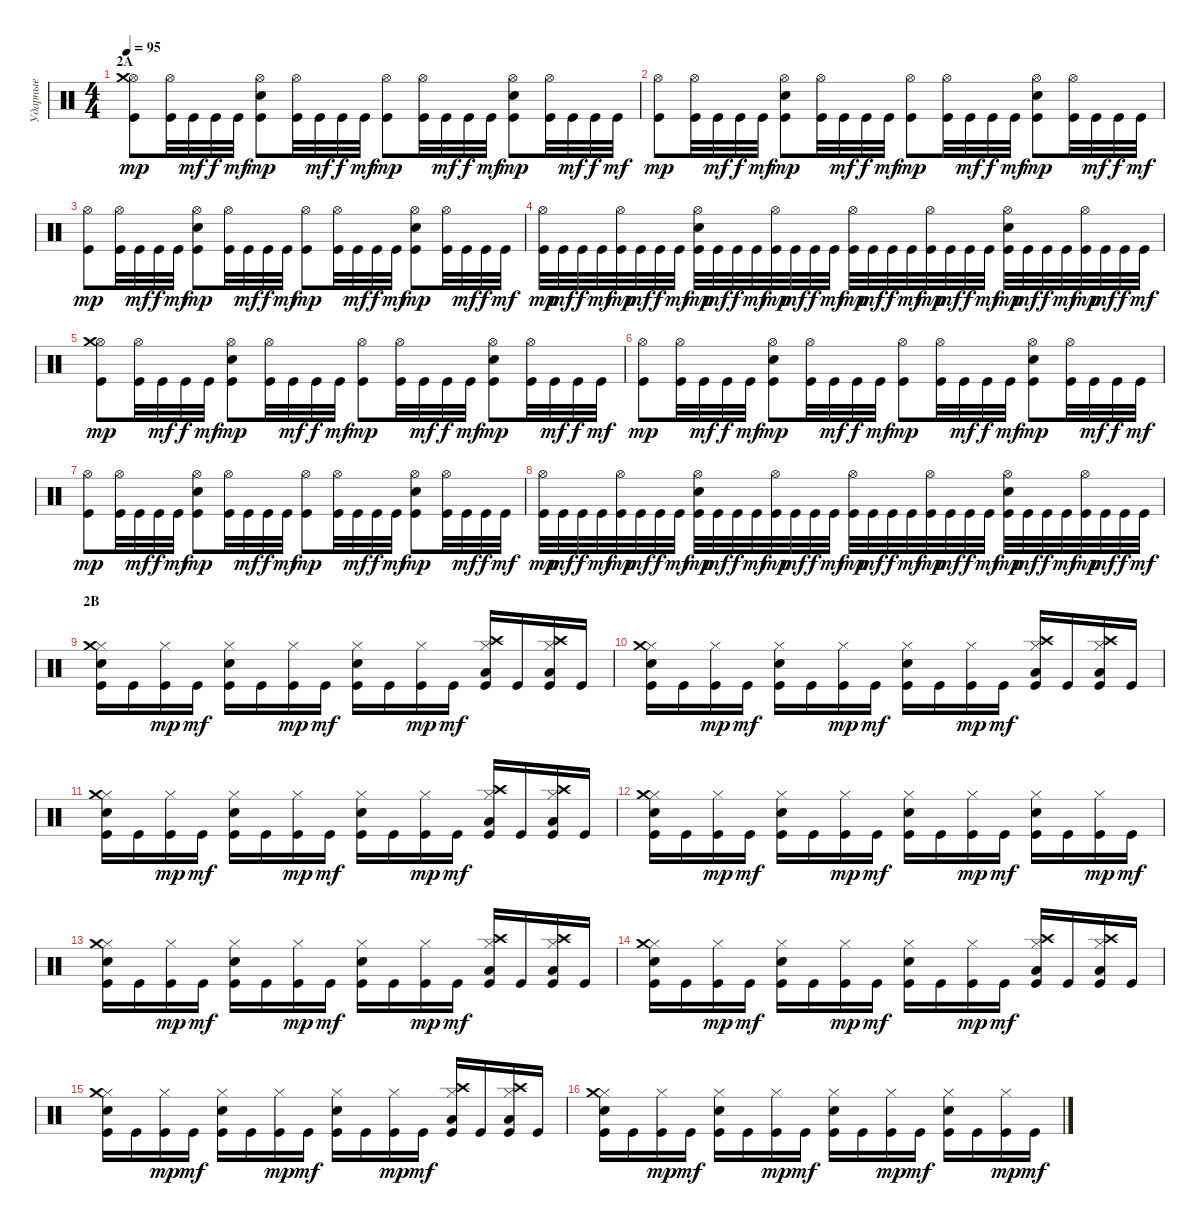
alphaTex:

\track ("Ударные" "Ударные") {instrument percussion}
\staff {score}
\articulation defaults
\ts (4 4)
\section ("" "2A")
\tempo 95
\clef neutral
\ks c
("Hi-Hat (open)" "Crash medium (hit)" "Kick (hit)").8{dy mp} ("Hi-Hat (open)" "Kick (hit)").32 "Kick (hit)".32{dy mf} "Kick (hit)".32{dy f} "Kick (hit)".32{dy mf} ("Hi-Hat (open)" "Snare (hit) 2" "Kick (hit)").8{dy mp} ("Hi-Hat (open)" "Kick (hit)").32 "Kick (hit)".32{dy mf} "Kick (hit)".32{dy f} "Kick (hit)".32{dy mf} ("Hi-Hat (open)" "Kick (hit)").8{dy mp} ("Hi-Hat (open)" "Kick (hit)").32 "Kick (hit)".32{dy mf} "Kick (hit)".32{dy f} "Kick (hit)".32{dy mf} ("Hi-Hat (open)" "Snare (hit) 2" "Kick (hit)").8{dy mp} ("Hi-Hat (open)" "Kick (hit)").32 "Kick (hit)".32{dy mf} "Kick (hit)".32{dy f} "Kick (hit)".32{dy mf} |
("Hi-Hat (open)" "Kick (hit)").8{dy mp} ("Hi-Hat (open)" "Kick (hit)").32 "Kick (hit)".32{dy mf} "Kick (hit)".32{dy f} "Kick (hit)".32{dy mf} ("Hi-Hat (open)" "Snare (hit) 2" "Kick (hit)").8{dy mp} ("Hi-Hat (open)" "Kick (hit)").32 "Kick (hit)".32{dy mf} "Kick (hit)".32{dy f} "Kick (hit)".32{dy mf} ("Hi-Hat (open)" "Kick (hit)").8{dy mp} ("Hi-Hat (open)" "Kick (hit)").32 "Kick (hit)".32{dy mf} "Kick (hit)".32{dy f} "Kick (hit)".32{dy mf} ("Hi-Hat (open)" "Snare (hit) 2" "Kick (hit)").8{dy mp} ("Hi-Hat (open)" "Kick (hit)").32 "Kick (hit)".32{dy mf} "Kick (hit)".32{dy f} "Kick (hit)".32{dy mf} |
("Hi-Hat (open)" "Kick (hit)").8{dy mp} ("Hi-Hat (open)" "Kick (hit)").32 "Kick (hit)".32{dy mf} "Kick (hit)".32{dy f} "Kick (hit)".32{dy mf} ("Hi-Hat (open)" "Snare (hit) 2" "Kick (hit)").8{dy mp} ("Hi-Hat (open)" "Kick (hit)").32 "Kick (hit)".32{dy mf} "Kick (hit)".32{dy f} "Kick (hit)".32{dy mf} ("Hi-Hat (open)" "Kick (hit)").8{dy mp} ("Hi-Hat (open)" "Kick (hit)").32 "Kick (hit)".32{dy mf} "Kick (hit)".32{dy f} "Kick (hit)".32{dy mf} ("Hi-Hat (open)" "Snare (hit) 2" "Kick (hit)").8{dy mp} ("Hi-Hat (open)" "Kick (hit)").32 "Kick (hit)".32{dy mf} "Kick (hit)".32{dy f} "Kick (hit)".32{dy mf} |
("Hi-Hat (open)" "Kick (hit)").32{dy mp} "Kick (hit)".32{dy mf} "Kick (hit)".32{dy f} "Kick (hit)".32{dy mf} ("Hi-Hat (open)" "Kick (hit)").32{dy mp} "Kick (hit)".32{dy mf} "Kick (hit)".32{dy f} "Kick (hit)".32{dy mf} ("Hi-Hat (open)" "Snare (hit) 2" "Kick (hit)").32{dy mp} "Kick (hit)".32{dy mf} "Kick (hit)".32{dy f} "Kick (hit)".32{dy mf} ("Hi-Hat (open)" "Kick (hit)").32{dy mp} "Kick (hit)".32{dy mf} "Kick (hit)".32{dy f} "Kick (hit)".32{dy mf} ("Hi-Hat (open)" "Kick (hit)").32{dy mp} "Kick (hit)".32{dy mf} "Kick (hit)".32{dy f} "Kick (hit)".32{dy mf} ("Hi-Hat (open)" "Kick (hit)").32{dy mp} "Kick (hit)".32{dy mf} "Kick (hit)".32{dy f} "Kick (hit)".32{dy mf} ("Hi-Hat (open)" "Snare (hit) 2" "Kick (hit)").32{dy mp} "Kick (hit)".32{dy mf} "Kick (hit)".32{dy f} "Kick (hit)".32{dy mf} ("Hi-Hat (open)" "Kick (hit)").32{dy mp} "Kick (hit)".32{dy mf} "Kick (hit)".32{dy f} "Kick (hit)".32{dy mf} |
("Hi-Hat (open)" "Crash medium (hit)" "Kick (hit)").8{dy mp} ("Hi-Hat (open)" "Kick (hit)").32 "Kick (hit)".32{dy mf} "Kick (hit)".32{dy f} "Kick (hit)".32{dy mf} ("Hi-Hat (open)" "Snare (hit) 2" "Kick (hit)").8{dy mp} ("Hi-Hat (open)" "Kick (hit)").32 "Kick (hit)".32{dy mf} "Kick (hit)".32{dy f} "Kick (hit)".32{dy mf} ("Hi-Hat (open)" "Kick (hit)").8{dy mp} ("Hi-Hat (open)" "Kick (hit)").32 "Kick (hit)".32{dy mf} "Kick (hit)".32{dy f} "Kick (hit)".32{dy mf} ("Hi-Hat (open)" "Snare (hit) 2" "Kick (hit)").8{dy mp} ("Hi-Hat (open)" "Kick (hit)").32 "Kick (hit)".32{dy mf} "Kick (hit)".32{dy f} "Kick (hit)".32{dy mf} |
("Hi-Hat (open)" "Kick (hit)").8{dy mp} ("Hi-Hat (open)" "Kick (hit)").32 "Kick (hit)".32{dy mf} "Kick (hit)".32{dy f} "Kick (hit)".32{dy mf} ("Hi-Hat (open)" "Snare (hit) 2" "Kick (hit)").8{dy mp} ("Hi-Hat (open)" "Kick (hit)").32 "Kick (hit)".32{dy mf} "Kick (hit)".32{dy f} "Kick (hit)".32{dy mf} ("Hi-Hat (open)" "Kick (hit)").8{dy mp} ("Hi-Hat (open)" "Kick (hit)").32 "Kick (hit)".32{dy mf} "Kick (hit)".32{dy f} "Kick (hit)".32{dy mf} ("Hi-Hat (open)" "Snare (hit) 2" "Kick (hit)").8{dy mp} ("Hi-Hat (open)" "Kick (hit)").32 "Kick (hit)".32{dy mf} "Kick (hit)".32{dy f} "Kick (hit)".32{dy mf} |
("Hi-Hat (open)" "Kick (hit)").8{dy mp} ("Hi-Hat (open)" "Kick (hit)").32 "Kick (hit)".32{dy mf} "Kick (hit)".32{dy f} "Kick (hit)".32{dy mf} ("Hi-Hat (open)" "Snare (hit) 2" "Kick (hit)").8{dy mp} ("Hi-Hat (open)" "Kick (hit)").32 "Kick (hit)".32{dy mf} "Kick (hit)".32{dy f} "Kick (hit)".32{dy mf} ("Hi-Hat (open)" "Kick (hit)").8{dy mp} ("Hi-Hat (open)" "Kick (hit)").32 "Kick (hit)".32{dy mf} "Kick (hit)".32{dy f} "Kick (hit)".32{dy mf} ("Hi-Hat (open)" "Snare (hit) 2" "Kick (hit)").8{dy mp} ("Hi-Hat (open)" "Kick (hit)").32 "Kick (hit)".32{dy mf} "Kick (hit)".32{dy f} "Kick (hit)".32{dy mf} |
("Hi-Hat (open)" "Kick (hit)").32{dy mp} "Kick (hit)".32{dy mf} "Kick (hit)".32{dy f} "Kick (hit)".32{dy mf} ("Hi-Hat (open)" "Kick (hit)").32{dy mp} "Kick (hit)".32{dy mf} "Kick (hit)".32{dy f} "Kick (hit)".32{dy mf} ("Hi-Hat (open)" "Snare (hit) 2" "Kick (hit)").32{dy mp} "Kick (hit)".32{dy mf} "Kick (hit)".32{dy f} "Kick (hit)".32{dy mf} ("Hi-Hat (open)" "Kick (hit)").32{dy mp} "Kick (hit)".32{dy mf} "Kick (hit)".32{dy f} "Kick (hit)".32{dy mf} ("Hi-Hat (open)" "Kick (hit)").32{dy mp} "Kick (hit)".32{dy mf} "Kick (hit)".32{dy f} "Kick (hit)".32{dy mf} ("Hi-Hat (open)" "Kick (hit)").32{dy mp} "Kick (hit)".32{dy mf} "Kick (hit)".32{dy f} "Kick (hit)".32{dy mf} ("Hi-Hat (open)" "Snare (hit) 2" "Kick (hit)").32{dy mp} "Kick (hit)".32{dy mf} "Kick (hit)".32{dy f} "Kick (hit)".32{dy mf} ("Hi-Hat (open)" "Kick (hit)").32{dy mp} "Kick (hit)".32{dy mf} "Kick (hit)".32{dy f} "Kick (hit)".32{dy mf} |
\section ("" "2B")
("Hi-Hat (closed)" "Crash medium (hit)" "Snare (hit) 2" "Kick (hit)").16 "Kick (hit)".16 ("Hi-Hat (closed)" "Kick (hit)").16{dy mp} "Kick (hit)".16{dy mf} ("Hi-Hat (closed)" "Snare (hit) 2" "Kick (hit)").16 "Kick (hit)".16 ("Hi-Hat (closed)" "Kick (hit)").16{dy mp} "Kick (hit)".16{dy mf} ("Hi-Hat (closed)" "Snare (hit) 2" "Kick (hit)").16 "Kick (hit)".16 ("Hi-Hat (closed)" "Kick (hit)").16{dy mp} "Kick (hit)".16{dy mf} ("Hi-Hat (closed)" "Crash high (hit)" "Low Floor Tom (hit)" "Kick (hit)").16 "Kick (hit)".16 ("Hi-Hat (closed)" "Crash high (hit)" "Low Floor Tom (hit)" "Kick (hit)").16 "Kick (hit)".16 |
("Hi-Hat (closed)" "Crash medium (hit)" "Snare (hit) 2" "Kick (hit)").16 "Kick (hit)".16 ("Hi-Hat (closed)" "Kick (hit)").16{dy mp} "Kick (hit)".16{dy mf} ("Hi-Hat (closed)" "Snare (hit) 2" "Kick (hit)").16 "Kick (hit)".16 ("Hi-Hat (closed)" "Kick (hit)").16{dy mp} "Kick (hit)".16{dy mf} ("Hi-Hat (closed)" "Snare (hit) 2" "Kick (hit)").16 "Kick (hit)".16 ("Hi-Hat (closed)" "Kick (hit)").16{dy mp} "Kick (hit)".16{dy mf} ("Hi-Hat (closed)" "Crash high (hit)" "Low Floor Tom (hit)" "Kick (hit)").16 "Kick (hit)".16 ("Hi-Hat (closed)" "Crash high (hit)" "Low Floor Tom (hit)" "Kick (hit)").16 "Kick (hit)".16 |
("Hi-Hat (closed)" "Crash medium (hit)" "Snare (hit) 2" "Kick (hit)").16 "Kick (hit)".16 ("Hi-Hat (closed)" "Kick (hit)").16{dy mp} "Kick (hit)".16{dy mf} ("Hi-Hat (closed)" "Snare (hit) 2" "Kick (hit)").16 "Kick (hit)".16 ("Hi-Hat (closed)" "Kick (hit)").16{dy mp} "Kick (hit)".16{dy mf} ("Hi-Hat (closed)" "Snare (hit) 2" "Kick (hit)").16 "Kick (hit)".16 ("Hi-Hat (closed)" "Kick (hit)").16{dy mp} "Kick (hit)".16{dy mf} ("Hi-Hat (closed)" "Crash high (hit)" "Low Floor Tom (hit)" "Kick (hit)").16 "Kick (hit)".16 ("Hi-Hat (closed)" "Crash high (hit)" "Low Floor Tom (hit)" "Kick (hit)").16 "Kick (hit)".16 |
("Hi-Hat (closed)" "Crash medium (hit)" "Snare (hit) 2" "Kick (hit)").16 "Kick (hit)".16 ("Hi-Hat (closed)" "Kick (hit)").16{dy mp} "Kick (hit)".16{dy mf} ("Hi-Hat (closed)" "Snare (hit) 2" "Kick (hit)").16 "Kick (hit)".16 ("Hi-Hat (closed)" "Kick (hit)").16{dy mp} "Kick (hit)".16{dy mf} ("Hi-Hat (closed)" "Snare (hit) 2" "Kick (hit)").16 "Kick (hit)".16 ("Hi-Hat (closed)" "Kick (hit)").16{dy mp} "Kick (hit)".16{dy mf} ("Hi-Hat (closed)" "Snare (hit) 2" "Kick (hit)").16 "Kick (hit)".16 ("Hi-Hat (closed)" "Kick (hit)").16{dy mp} "Kick (hit)".16{dy mf} |
("Hi-Hat (closed)" "Crash medium (hit)" "Snare (hit) 2" "Kick (hit)").16 "Kick (hit)".16 ("Hi-Hat (closed)" "Kick (hit)").16{dy mp} "Kick (hit)".16{dy mf} ("Hi-Hat (closed)" "Snare (hit) 2" "Kick (hit)").16 "Kick (hit)".16 ("Hi-Hat (closed)" "Kick (hit)").16{dy mp} "Kick (hit)".16{dy mf} ("Hi-Hat (closed)" "Snare (hit) 2" "Kick (hit)").16 "Kick (hit)".16 ("Hi-Hat (closed)" "Kick (hit)").16{dy mp} "Kick (hit)".16{dy mf} ("Hi-Hat (closed)" "Crash high (hit)" "Low Floor Tom (hit)" "Kick (hit)").16 "Kick (hit)".16 ("Hi-Hat (closed)" "Crash high (hit)" "Low Floor Tom (hit)" "Kick (hit)").16 "Kick (hit)".16 |
("Hi-Hat (closed)" "Crash medium (hit)" "Snare (hit) 2" "Kick (hit)").16 "Kick (hit)".16 ("Hi-Hat (closed)" "Kick (hit)").16{dy mp} "Kick (hit)".16{dy mf} ("Hi-Hat (closed)" "Snare (hit) 2" "Kick (hit)").16 "Kick (hit)".16 ("Hi-Hat (closed)" "Kick (hit)").16{dy mp} "Kick (hit)".16{dy mf} ("Hi-Hat (closed)" "Snare (hit) 2" "Kick (hit)").16 "Kick (hit)".16 ("Hi-Hat (closed)" "Kick (hit)").16{dy mp} "Kick (hit)".16{dy mf} ("Hi-Hat (closed)" "Crash high (hit)" "Low Floor Tom (hit)" "Kick (hit)").16 "Kick (hit)".16 ("Hi-Hat (closed)" "Crash high (hit)" "Low Floor Tom (hit)" "Kick (hit)").16 "Kick (hit)".16 |
("Hi-Hat (closed)" "Crash medium (hit)" "Snare (hit) 2" "Kick (hit)").16 "Kick (hit)".16 ("Hi-Hat (closed)" "Kick (hit)").16{dy mp} "Kick (hit)".16{dy mf} ("Hi-Hat (closed)" "Snare (hit) 2" "Kick (hit)").16 "Kick (hit)".16 ("Hi-Hat (closed)" "Kick (hit)").16{dy mp} "Kick (hit)".16{dy mf} ("Hi-Hat (closed)" "Snare (hit) 2" "Kick (hit)").16 "Kick (hit)".16 ("Hi-Hat (closed)" "Kick (hit)").16{dy mp} "Kick (hit)".16{dy mf} ("Hi-Hat (closed)" "Crash high (hit)" "Low Floor Tom (hit)" "Kick (hit)").16 "Kick (hit)".16 ("Hi-Hat (closed)" "Crash high (hit)" "Low Floor Tom (hit)" "Kick (hit)").16 "Kick (hit)".16 |
("Hi-Hat (closed)" "Crash medium (hit)" "Snare (hit) 2" "Kick (hit)").16 "Kick (hit)".16 ("Hi-Hat (closed)" "Kick (hit)").16{dy mp} "Kick (hit)".16{dy mf} ("Hi-Hat (closed)" "Snare (hit) 2" "Kick (hit)").16 "Kick (hit)".16 ("Hi-Hat (closed)" "Kick (hit)").16{dy mp} "Kick (hit)".16{dy mf} ("Hi-Hat (closed)" "Snare (hit) 2" "Kick (hit)").16 "Kick (hit)".16 ("Hi-Hat (closed)" "Kick (hit)").16{dy mp} "Kick (hit)".16{dy mf} ("Hi-Hat (closed)" "Snare (hit) 2" "Kick (hit)").16 "Kick (hit)".16 ("Hi-Hat (closed)" "Kick (hit)").16{dy mp} "Kick (hit)".16{dy mf}
